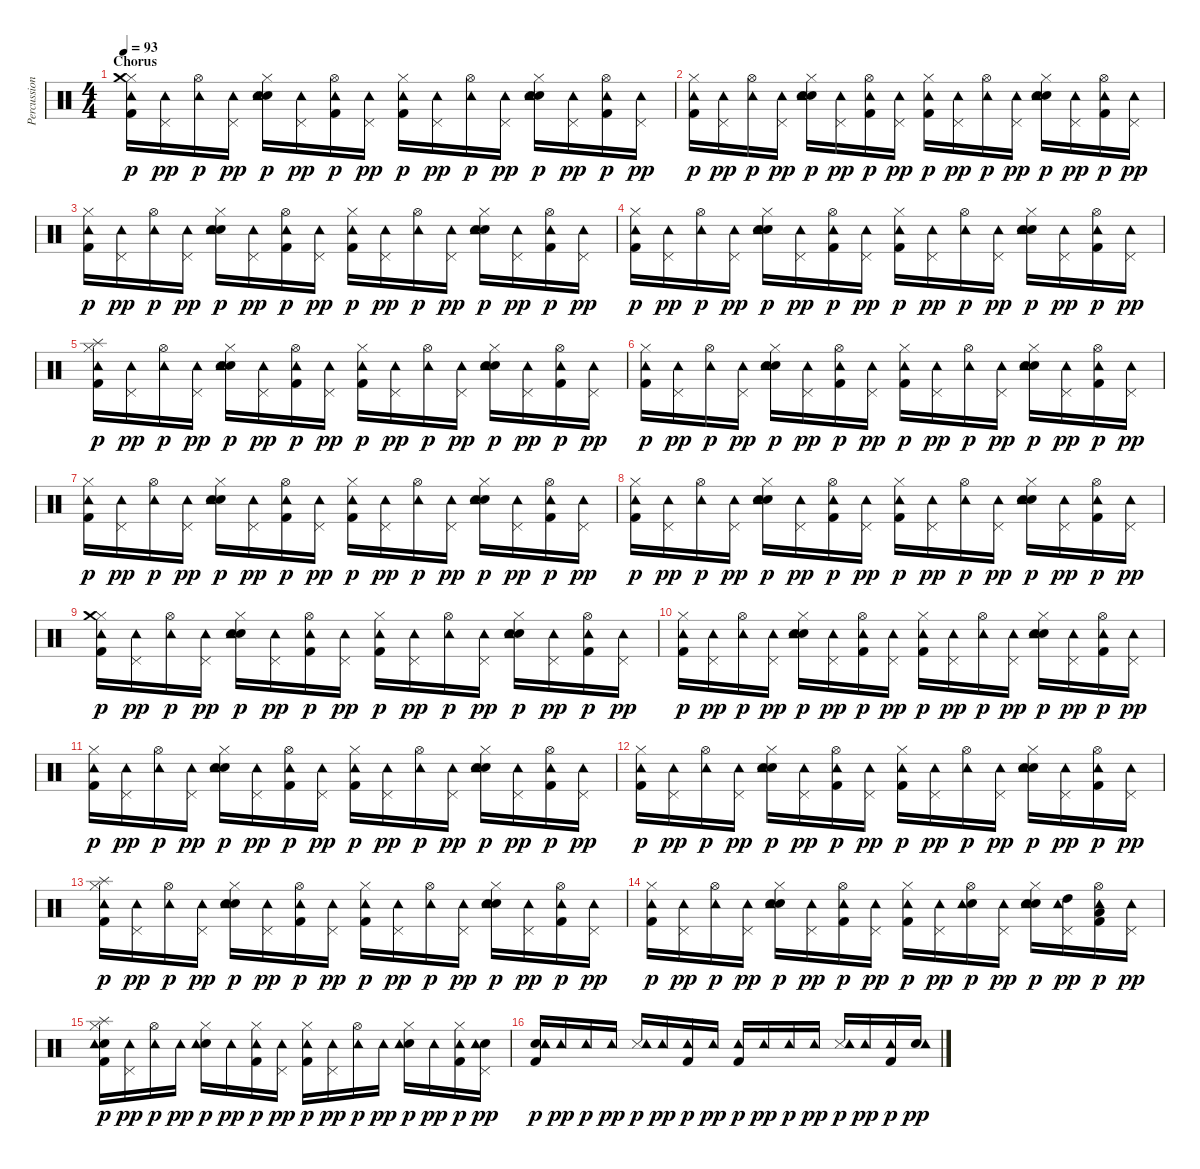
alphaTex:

\track ("Percussions" "Percussion") {instrument percussion}
\staff {score}
\articulation defaults
\ts (4 4)
\section ("" "Chorus")
\tempo 93
\clef neutral
\ks c
("Hi-Hat (closed)" "Crash medium (hit)" "Kick (hit) 2" "Tambourine (hit)").16{dy p} ("Pedal Hi-Hat (hit)" "Tambourine (hit)").16{dy pp} ("Hi-Hat (open)" "Tambourine (hit)").16{dy p} ("Pedal Hi-Hat (hit)" "Tambourine (hit)").16{dy pp} ("Hi-Hat (closed)" "Electric Snare (hit)" "Hand Clap (hit)" "Tambourine (hit)").16{dy p} ("Pedal Hi-Hat (hit)" "Tambourine (hit)").16{dy pp} ("Hi-Hat (open)" "Kick (hit) 2" "Tambourine (hit)").16{dy p} ("Pedal Hi-Hat (hit)" "Tambourine (hit)").16{dy pp} ("Hi-Hat (closed)" "Kick (hit) 2" "Tambourine (hit)").16{dy p} ("Pedal Hi-Hat (hit)" "Tambourine (hit)").16{dy pp} ("Hi-Hat (open)" "Tambourine (hit)").16{dy p} ("Pedal Hi-Hat (hit)" "Tambourine (hit)").16{dy pp} ("Hi-Hat (closed)" "Electric Snare (hit)" "Hand Clap (hit)" "Tambourine (hit)").16{dy p} ("Pedal Hi-Hat (hit)" "Tambourine (hit)").16{dy pp} ("Hi-Hat (open)" "Kick (hit) 2" "Tambourine (hit)").16{dy p} ("Pedal Hi-Hat (hit)" "Tambourine (hit)").16{dy pp} |
("Hi-Hat (closed)" "Kick (hit) 2" "Tambourine (hit)").16{dy p} ("Pedal Hi-Hat (hit)" "Tambourine (hit)").16{dy pp} ("Hi-Hat (open)" "Tambourine (hit)").16{dy p} ("Pedal Hi-Hat (hit)" "Tambourine (hit)").16{dy pp} ("Hi-Hat (closed)" "Electric Snare (hit)" "Hand Clap (hit)" "Tambourine (hit)").16{dy p} ("Pedal Hi-Hat (hit)" "Tambourine (hit)").16{dy pp} ("Hi-Hat (open)" "Kick (hit) 2" "Tambourine (hit)").16{dy p} ("Pedal Hi-Hat (hit)" "Tambourine (hit)").16{dy pp} ("Hi-Hat (closed)" "Kick (hit) 2" "Tambourine (hit)").16{dy p} ("Pedal Hi-Hat (hit)" "Tambourine (hit)").16{dy pp} ("Hi-Hat (open)" "Tambourine (hit)").16{dy p} ("Pedal Hi-Hat (hit)" "Tambourine (hit)").16{dy pp} ("Hi-Hat (closed)" "Electric Snare (hit)" "Hand Clap (hit)" "Tambourine (hit)").16{dy p} ("Pedal Hi-Hat (hit)" "Tambourine (hit)").16{dy pp} ("Hi-Hat (open)" "Kick (hit) 2" "Tambourine (hit)").16{dy p} ("Pedal Hi-Hat (hit)" "Tambourine (hit)").16{dy pp} |
("Hi-Hat (closed)" "Kick (hit) 2" "Tambourine (hit)").16{dy p} ("Pedal Hi-Hat (hit)" "Tambourine (hit)").16{dy pp} ("Hi-Hat (open)" "Tambourine (hit)").16{dy p} ("Pedal Hi-Hat (hit)" "Tambourine (hit)").16{dy pp} ("Hi-Hat (closed)" "Electric Snare (hit)" "Hand Clap (hit)" "Tambourine (hit)").16{dy p} ("Pedal Hi-Hat (hit)" "Tambourine (hit)").16{dy pp} ("Hi-Hat (open)" "Kick (hit) 2" "Tambourine (hit)").16{dy p} ("Pedal Hi-Hat (hit)" "Tambourine (hit)").16{dy pp} ("Hi-Hat (closed)" "Kick (hit) 2" "Tambourine (hit)").16{dy p} ("Pedal Hi-Hat (hit)" "Tambourine (hit)").16{dy pp} ("Hi-Hat (open)" "Tambourine (hit)").16{dy p} ("Pedal Hi-Hat (hit)" "Tambourine (hit)").16{dy pp} ("Hi-Hat (closed)" "Electric Snare (hit)" "Hand Clap (hit)" "Tambourine (hit)").16{dy p} ("Pedal Hi-Hat (hit)" "Tambourine (hit)").16{dy pp} ("Hi-Hat (open)" "Kick (hit) 2" "Tambourine (hit)").16{dy p} ("Pedal Hi-Hat (hit)" "Tambourine (hit)").16{dy pp} |
("Hi-Hat (closed)" "Kick (hit) 2" "Tambourine (hit)").16{dy p} ("Pedal Hi-Hat (hit)" "Tambourine (hit)").16{dy pp} ("Hi-Hat (open)" "Tambourine (hit)").16{dy p} ("Pedal Hi-Hat (hit)" "Tambourine (hit)").16{dy pp} ("Hi-Hat (closed)" "Electric Snare (hit)" "Hand Clap (hit)" "Tambourine (hit)").16{dy p} ("Pedal Hi-Hat (hit)" "Tambourine (hit)").16{dy pp} ("Hi-Hat (open)" "Kick (hit) 2" "Tambourine (hit)").16{dy p} ("Pedal Hi-Hat (hit)" "Tambourine (hit)").16{dy pp} ("Hi-Hat (closed)" "Kick (hit) 2" "Tambourine (hit)").16{dy p} ("Pedal Hi-Hat (hit)" "Tambourine (hit)").16{dy pp} ("Hi-Hat (open)" "Tambourine (hit)").16{dy p} ("Pedal Hi-Hat (hit)" "Tambourine (hit)").16{dy pp} ("Hi-Hat (closed)" "Electric Snare (hit)" "Hand Clap (hit)" "Tambourine (hit)").16{dy p} ("Pedal Hi-Hat (hit)" "Tambourine (hit)").16{dy pp} ("Hi-Hat (open)" "Kick (hit) 2" "Tambourine (hit)").16{dy p} ("Pedal Hi-Hat (hit)" "Tambourine (hit)").16{dy pp} |
("Hi-Hat (closed)" "Splash (hit)" "Kick (hit) 2" "Tambourine (hit)").16{dy p} ("Pedal Hi-Hat (hit)" "Tambourine (hit)").16{dy pp} ("Hi-Hat (open)" "Tambourine (hit)").16{dy p} ("Pedal Hi-Hat (hit)" "Tambourine (hit)").16{dy pp} ("Hi-Hat (closed)" "Electric Snare (hit)" "Hand Clap (hit)" "Tambourine (hit)").16{dy p} ("Pedal Hi-Hat (hit)" "Tambourine (hit)").16{dy pp} ("Hi-Hat (open)" "Kick (hit) 2" "Tambourine (hit)").16{dy p} ("Pedal Hi-Hat (hit)" "Tambourine (hit)").16{dy pp} ("Hi-Hat (closed)" "Kick (hit) 2" "Tambourine (hit)").16{dy p} ("Pedal Hi-Hat (hit)" "Tambourine (hit)").16{dy pp} ("Hi-Hat (open)" "Tambourine (hit)").16{dy p} ("Pedal Hi-Hat (hit)" "Tambourine (hit)").16{dy pp} ("Hi-Hat (closed)" "Electric Snare (hit)" "Hand Clap (hit)" "Tambourine (hit)").16{dy p} ("Pedal Hi-Hat (hit)" "Tambourine (hit)").16{dy pp} ("Hi-Hat (open)" "Kick (hit) 2" "Tambourine (hit)").16{dy p} ("Pedal Hi-Hat (hit)" "Tambourine (hit)").16{dy pp} |
("Hi-Hat (closed)" "Kick (hit) 2" "Tambourine (hit)").16{dy p} ("Pedal Hi-Hat (hit)" "Tambourine (hit)").16{dy pp} ("Hi-Hat (open)" "Tambourine (hit)").16{dy p} ("Pedal Hi-Hat (hit)" "Tambourine (hit)").16{dy pp} ("Hi-Hat (closed)" "Electric Snare (hit)" "Hand Clap (hit)" "Tambourine (hit)").16{dy p} ("Pedal Hi-Hat (hit)" "Tambourine (hit)").16{dy pp} ("Hi-Hat (open)" "Kick (hit) 2" "Tambourine (hit)").16{dy p} ("Pedal Hi-Hat (hit)" "Tambourine (hit)").16{dy pp} ("Hi-Hat (closed)" "Kick (hit) 2" "Tambourine (hit)").16{dy p} ("Pedal Hi-Hat (hit)" "Tambourine (hit)").16{dy pp} ("Hi-Hat (open)" "Tambourine (hit)").16{dy p} ("Pedal Hi-Hat (hit)" "Tambourine (hit)").16{dy pp} ("Hi-Hat (closed)" "Electric Snare (hit)" "Hand Clap (hit)" "Tambourine (hit)").16{dy p} ("Pedal Hi-Hat (hit)" "Tambourine (hit)").16{dy pp} ("Hi-Hat (open)" "Kick (hit) 2" "Tambourine (hit)").16{dy p} ("Pedal Hi-Hat (hit)" "Tambourine (hit)").16{dy pp} |
("Hi-Hat (closed)" "Kick (hit) 2" "Tambourine (hit)").16{dy p} ("Pedal Hi-Hat (hit)" "Tambourine (hit)").16{dy pp} ("Hi-Hat (open)" "Tambourine (hit)").16{dy p} ("Pedal Hi-Hat (hit)" "Tambourine (hit)").16{dy pp} ("Hi-Hat (closed)" "Electric Snare (hit)" "Hand Clap (hit)" "Tambourine (hit)").16{dy p} ("Pedal Hi-Hat (hit)" "Tambourine (hit)").16{dy pp} ("Hi-Hat (open)" "Kick (hit) 2" "Tambourine (hit)").16{dy p} ("Pedal Hi-Hat (hit)" "Tambourine (hit)").16{dy pp} ("Hi-Hat (closed)" "Kick (hit) 2" "Tambourine (hit)").16{dy p} ("Pedal Hi-Hat (hit)" "Tambourine (hit)").16{dy pp} ("Hi-Hat (open)" "Tambourine (hit)").16{dy p} ("Pedal Hi-Hat (hit)" "Tambourine (hit)").16{dy pp} ("Hi-Hat (closed)" "Electric Snare (hit)" "Hand Clap (hit)" "Tambourine (hit)").16{dy p} ("Pedal Hi-Hat (hit)" "Tambourine (hit)").16{dy pp} ("Hi-Hat (open)" "Kick (hit) 2" "Tambourine (hit)").16{dy p} ("Pedal Hi-Hat (hit)" "Tambourine (hit)").16{dy pp} |
("Hi-Hat (closed)" "Kick (hit) 2" "Tambourine (hit)").16{dy p} ("Pedal Hi-Hat (hit)" "Tambourine (hit)").16{dy pp} ("Hi-Hat (open)" "Tambourine (hit)").16{dy p} ("Pedal Hi-Hat (hit)" "Tambourine (hit)").16{dy pp} ("Hi-Hat (closed)" "Electric Snare (hit)" "Hand Clap (hit)" "Tambourine (hit)").16{dy p} ("Pedal Hi-Hat (hit)" "Tambourine (hit)").16{dy pp} ("Hi-Hat (open)" "Kick (hit) 2" "Tambourine (hit)").16{dy p} ("Pedal Hi-Hat (hit)" "Tambourine (hit)").16{dy pp} ("Hi-Hat (closed)" "Kick (hit) 2" "Tambourine (hit)").16{dy p} ("Pedal Hi-Hat (hit)" "Tambourine (hit)").16{dy pp} ("Hi-Hat (open)" "Tambourine (hit)").16{dy p} ("Pedal Hi-Hat (hit)" "Tambourine (hit)").16{dy pp} ("Hi-Hat (closed)" "Electric Snare (hit)" "Hand Clap (hit)" "Tambourine (hit)").16{dy p} ("Pedal Hi-Hat (hit)" "Tambourine (hit)").16{dy pp} ("Hi-Hat (open)" "Kick (hit) 2" "Tambourine (hit)").16{dy p} ("Pedal Hi-Hat (hit)" "Tambourine (hit)").16{dy pp} |
("Hi-Hat (closed)" "Crash medium (hit)" "Kick (hit) 2" "Tambourine (hit)").16{dy p} ("Pedal Hi-Hat (hit)" "Tambourine (hit)").16{dy pp} ("Hi-Hat (open)" "Tambourine (hit)").16{dy p} ("Pedal Hi-Hat (hit)" "Tambourine (hit)").16{dy pp} ("Hi-Hat (closed)" "Electric Snare (hit)" "Hand Clap (hit)" "Tambourine (hit)").16{dy p} ("Pedal Hi-Hat (hit)" "Tambourine (hit)").16{dy pp} ("Hi-Hat (open)" "Kick (hit) 2" "Tambourine (hit)").16{dy p} ("Pedal Hi-Hat (hit)" "Tambourine (hit)").16{dy pp} ("Hi-Hat (closed)" "Kick (hit) 2" "Tambourine (hit)").16{dy p} ("Pedal Hi-Hat (hit)" "Tambourine (hit)").16{dy pp} ("Hi-Hat (open)" "Tambourine (hit)").16{dy p} ("Pedal Hi-Hat (hit)" "Tambourine (hit)").16{dy pp} ("Hi-Hat (closed)" "Electric Snare (hit)" "Hand Clap (hit)" "Tambourine (hit)").16{dy p} ("Pedal Hi-Hat (hit)" "Tambourine (hit)").16{dy pp} ("Hi-Hat (open)" "Kick (hit) 2" "Tambourine (hit)").16{dy p} ("Pedal Hi-Hat (hit)" "Tambourine (hit)").16{dy pp} |
("Hi-Hat (closed)" "Kick (hit) 2" "Tambourine (hit)").16{dy p} ("Pedal Hi-Hat (hit)" "Tambourine (hit)").16{dy pp} ("Hi-Hat (open)" "Tambourine (hit)").16{dy p} ("Pedal Hi-Hat (hit)" "Tambourine (hit)").16{dy pp} ("Hi-Hat (closed)" "Electric Snare (hit)" "Hand Clap (hit)" "Tambourine (hit)").16{dy p} ("Pedal Hi-Hat (hit)" "Tambourine (hit)").16{dy pp} ("Hi-Hat (open)" "Kick (hit) 2" "Tambourine (hit)").16{dy p} ("Pedal Hi-Hat (hit)" "Tambourine (hit)").16{dy pp} ("Hi-Hat (closed)" "Kick (hit) 2" "Tambourine (hit)").16{dy p} ("Pedal Hi-Hat (hit)" "Tambourine (hit)").16{dy pp} ("Hi-Hat (open)" "Tambourine (hit)").16{dy p} ("Pedal Hi-Hat (hit)" "Tambourine (hit)").16{dy pp} ("Hi-Hat (closed)" "Electric Snare (hit)" "Hand Clap (hit)" "Tambourine (hit)").16{dy p} ("Pedal Hi-Hat (hit)" "Tambourine (hit)").16{dy pp} ("Hi-Hat (open)" "Kick (hit) 2" "Tambourine (hit)").16{dy p} ("Pedal Hi-Hat (hit)" "Tambourine (hit)").16{dy pp} |
("Hi-Hat (closed)" "Kick (hit) 2" "Tambourine (hit)").16{dy p} ("Pedal Hi-Hat (hit)" "Tambourine (hit)").16{dy pp} ("Hi-Hat (open)" "Tambourine (hit)").16{dy p} ("Pedal Hi-Hat (hit)" "Tambourine (hit)").16{dy pp} ("Hi-Hat (closed)" "Electric Snare (hit)" "Hand Clap (hit)" "Tambourine (hit)").16{dy p} ("Pedal Hi-Hat (hit)" "Tambourine (hit)").16{dy pp} ("Hi-Hat (open)" "Kick (hit) 2" "Tambourine (hit)").16{dy p} ("Pedal Hi-Hat (hit)" "Tambourine (hit)").16{dy pp} ("Hi-Hat (closed)" "Kick (hit) 2" "Tambourine (hit)").16{dy p} ("Pedal Hi-Hat (hit)" "Tambourine (hit)").16{dy pp} ("Hi-Hat (open)" "Tambourine (hit)").16{dy p} ("Pedal Hi-Hat (hit)" "Tambourine (hit)").16{dy pp} ("Hi-Hat (closed)" "Electric Snare (hit)" "Hand Clap (hit)" "Tambourine (hit)").16{dy p} ("Pedal Hi-Hat (hit)" "Tambourine (hit)").16{dy pp} ("Hi-Hat (open)" "Kick (hit) 2" "Tambourine (hit)").16{dy p} ("Pedal Hi-Hat (hit)" "Tambourine (hit)").16{dy pp} |
("Hi-Hat (closed)" "Kick (hit) 2" "Tambourine (hit)").16{dy p} ("Pedal Hi-Hat (hit)" "Tambourine (hit)").16{dy pp} ("Hi-Hat (open)" "Tambourine (hit)").16{dy p} ("Pedal Hi-Hat (hit)" "Tambourine (hit)").16{dy pp} ("Hi-Hat (closed)" "Electric Snare (hit)" "Hand Clap (hit)" "Tambourine (hit)").16{dy p} ("Pedal Hi-Hat (hit)" "Tambourine (hit)").16{dy pp} ("Hi-Hat (open)" "Kick (hit) 2" "Tambourine (hit)").16{dy p} ("Pedal Hi-Hat (hit)" "Tambourine (hit)").16{dy pp} ("Hi-Hat (closed)" "Kick (hit) 2" "Tambourine (hit)").16{dy p} ("Pedal Hi-Hat (hit)" "Tambourine (hit)").16{dy pp} ("Hi-Hat (open)" "Tambourine (hit)").16{dy p} ("Pedal Hi-Hat (hit)" "Tambourine (hit)").16{dy pp} ("Hi-Hat (closed)" "Electric Snare (hit)" "Hand Clap (hit)" "Tambourine (hit)").16{dy p} ("Pedal Hi-Hat (hit)" "Tambourine (hit)").16{dy pp} ("Hi-Hat (open)" "Kick (hit) 2" "Tambourine (hit)").16{dy p} ("Pedal Hi-Hat (hit)" "Tambourine (hit)").16{dy pp} |
("Hi-Hat (closed)" "Splash (hit)" "Kick (hit) 2" "Tambourine (hit)").16{dy p} ("Pedal Hi-Hat (hit)" "Tambourine (hit)").16{dy pp} ("Hi-Hat (open)" "Tambourine (hit)").16{dy p} ("Pedal Hi-Hat (hit)" "Tambourine (hit)").16{dy pp} ("Hi-Hat (closed)" "Electric Snare (hit)" "Hand Clap (hit)" "Tambourine (hit)").16{dy p} ("Pedal Hi-Hat (hit)" "Tambourine (hit)").16{dy pp} ("Hi-Hat (open)" "Kick (hit) 2" "Tambourine (hit)").16{dy p} ("Pedal Hi-Hat (hit)" "Tambourine (hit)").16{dy pp} ("Hi-Hat (closed)" "Kick (hit) 2" "Tambourine (hit)").16{dy p} ("Pedal Hi-Hat (hit)" "Tambourine (hit)").16{dy pp} ("Hi-Hat (open)" "Tambourine (hit)").16{dy p} ("Pedal Hi-Hat (hit)" "Tambourine (hit)").16{dy pp} ("Hi-Hat (closed)" "Electric Snare (hit)" "Hand Clap (hit)" "Tambourine (hit)").16{dy p} ("Pedal Hi-Hat (hit)" "Tambourine (hit)").16{dy pp} ("Hi-Hat (open)" "Kick (hit) 2" "Tambourine (hit)").16{dy p} ("Pedal Hi-Hat (hit)" "Tambourine (hit)").16{dy pp} |
("Hi-Hat (closed)" "Kick (hit) 2" "Tambourine (hit)").16{dy p} ("Pedal Hi-Hat (hit)" "Tambourine (hit)").16{dy pp} ("Hi-Hat (open)" "Tambourine (hit)").16{dy p} ("Pedal Hi-Hat (hit)" "Tambourine (hit)").16{dy pp} ("Hi-Hat (closed)" "Electric Snare (hit)" "Hand Clap (hit)" "Tambourine (hit)").16{dy p} ("Pedal Hi-Hat (hit)" "Tambourine (hit)").16{dy pp} ("Hi-Hat (open)" "Kick (hit) 2" "Tambourine (hit)").16{dy p} ("Pedal Hi-Hat (hit)" "Tambourine (hit)").16{dy pp} ("Hi-Hat (closed)" "Kick (hit) 2" "Tambourine (hit)").16{dy p} ("Pedal Hi-Hat (hit)" "Tambourine (hit)").16{dy pp} ("Hi-Hat (open)" "Electric Snare (hit)" "Tambourine (hit)").16{dy p} ("Pedal Hi-Hat (hit)" "Tambourine (hit)").16{dy pp} ("Hi-Hat (closed)" "Electric Snare (hit)" "Hand Clap (hit)" "Tambourine (hit)").16{dy p} ("Pedal Hi-Hat (hit)" "High Tom (hit)" "Tambourine (hit)").16{dy pp} ("Hi-Hat (open)" "Low Tom (hit)" "Kick (hit) 2" "Tambourine (hit)").16{dy p} ("Pedal Hi-Hat (hit)" "Tambourine (hit)").16{dy pp} |
("Hi-Hat (closed)" "Splash (hit)" "Hand Clap (hit)" "Kick (hit) 2" "Tambourine (hit)").16{dy p} ("Pedal Hi-Hat (hit)" "Tambourine (hit)").16{dy pp} ("Hi-Hat (open)" "Tambourine (hit)").16{dy p} "Tambourine (hit)".16{dy pp} ("Hi-Hat (closed)" "Electric Snare (hit)" "Tambourine (hit)").16{dy p} "Tambourine (hit)".16{dy pp} ("Hi-Hat (closed)" "Kick (hit) 2" "Tambourine (hit)").16{dy p} ("Pedal Hi-Hat (hit)" "Tambourine (hit)").16{dy pp} ("Hi-Hat (closed)" "Kick (hit) 2" "Tambourine (hit)").16{dy p} ("Pedal Hi-Hat (hit)" "Tambourine (hit)").16{dy pp} ("Hi-Hat (open)" "Tambourine (hit)").16{dy p} "Tambourine (hit)".16{dy pp} ("Hi-Hat (closed)" "Electric Snare (hit)" "Tambourine (hit)").16{dy p} "Tambourine (hit)".16{dy pp} ("Hi-Hat (closed)" "Kick (hit) 2" "Tambourine (hit)").16{dy p} ("Pedal Hi-Hat (hit)" "Hand Clap (hit)" "Tambourine (hit)").16{dy pp} |
("Hand Clap (hit)" "Kick (hit) 2" "Tambourine (hit)").16{dy p} "Tambourine (hit)".16{dy pp} "Tambourine (hit)".16{dy p} "Tambourine (hit)".16{dy pp} ("Snare (side stick) 3" "Tambourine (hit)").16{dy p} "Tambourine (hit)".16{dy pp} ("Kick (hit) 2" "Tambourine (hit)").16{dy p} "Tambourine (hit)".16{dy pp} ("Kick (hit) 2" "Tambourine (hit)").16{dy p} "Tambourine (hit)".16{dy pp} "Tambourine (hit)".16{dy p} "Tambourine (hit)".16{dy pp} ("Snare (side stick) 3" "Tambourine (hit)").16{dy p} "Tambourine (hit)".16{dy pp} ("Kick (hit) 2" "Tambourine (hit)").16{dy p} ("Hand Clap (hit)" "Tambourine (hit)").16{dy pp}
